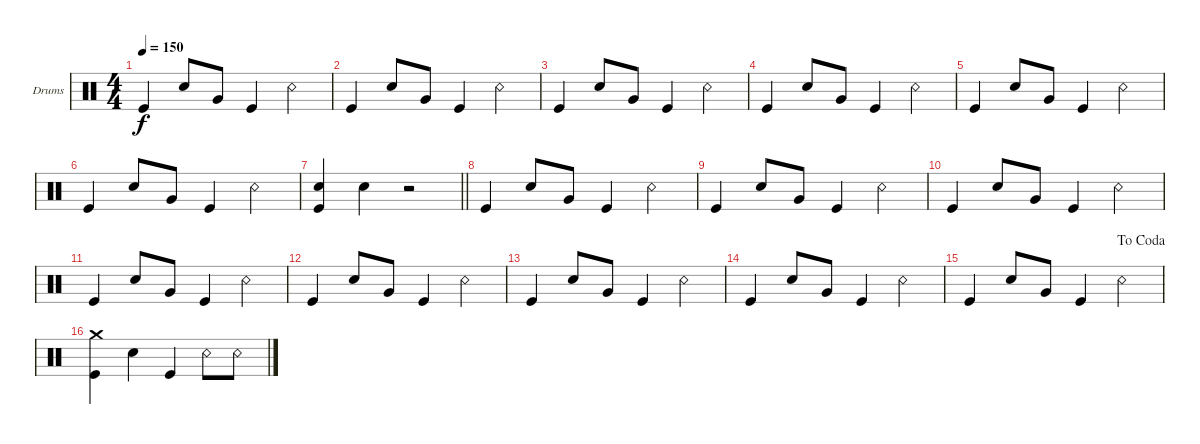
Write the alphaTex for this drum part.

\bracketExtendMode groupsimilarinstruments
\firstSystemTrackNameOrientation horizontal
\otherSystemsTrackNameOrientation horizontal
\track ("Drumkit" "Drums") {instrument percussion}
\staff {score}
\articulation defaults
\ts (4 4)
\tempo 150
\clef neutral
\scale
0.333333
\ks c "Kick (hit)".4{dy f} "Snare (hit) 2".8 "Very Low Tom (hit)".8 "Kick (hit)".4 "Snare (rim shot)".4
|
\scale
0.333333 "Kick (hit)".4 "Snare (hit) 2".8 "Very Low Tom (hit)".8 "Kick (hit)".4 "Snare (rim shot)".4 |
\scale
0.333333 "Kick (hit)".4 "Snare (hit) 2".8 "Very Low Tom (hit)".8 "Kick (hit)".4 "Snare (rim shot)".4 |
\scale
0.333333 "Kick (hit)".4 "Snare (hit) 2".8 "Very Low Tom (hit)".8 "Kick (hit)".4 "Snare (rim shot)".4 |
\scale
0.333333 "Kick (hit)".4 "Snare (hit) 2".8 "Very Low Tom (hit)".8 "Kick (hit)".4 "Snare (rim shot)".4 |
\scale
0.333333 "Kick (hit)".4 "Snare (hit) 2".8 "Very Low Tom (hit)".8 "Kick (hit)".4 "Snare (rim shot)".4 |
\scale
0.333333
\barLineRight lightlight
("Kick (hit)" "Snare (hit) 2").4 "Snare (hit) 2".4 r.2 |
\scale
0.333333 "Kick (hit)".4 "Snare (hit) 2".8 "Very Low Tom (hit)".8 "Kick (hit)".4 "Snare (rim shot)".4 |
\scale
0.333333 "Kick (hit)".4 "Snare (hit) 2".8 "Very Low Tom (hit)".8 "Kick (hit)".4 "Snare (rim shot)".4 |
\scale
0.333333 "Kick (hit)".4 "Snare (hit) 2".8 "Very Low Tom (hit)".8 "Kick (hit)".4 "Snare (rim shot)".4 |
\scale
0.333333 "Kick (hit)".4 "Snare (hit) 2".8 "Very Low Tom (hit)".8 "Kick (hit)".4 "Snare (rim shot)".4 |
\scale
0.333333 "Kick (hit)".4 "Snare (hit) 2".8 "Very Low Tom (hit)".8 "Kick (hit)".4 "Snare (rim shot)".4 |
\scale
0.333333 "Kick (hit)".4 "Snare (hit) 2".8 "Very Low Tom (hit)".8 "Kick (hit)".4 "Snare (rim shot)".4 |
\scale
0.333333 "Kick (hit)".4 "Snare (hit) 2".8 "Very Low Tom (hit)".8 "Kick (hit)".4 "Snare (rim shot)".4 |
\jump dacoda
\scale
0.333333 "Kick (hit)".4 "Snare (hit) 2".8 "Very Low Tom (hit)".8 "Kick (hit)".4 "Snare (rim shot)".4 |
\scale
0.333333 ("Kick (hit)" "Crash medium (hit)").4 "Snare (hit) 2".4 "Kick (hit)".4 "Snare (rim shot)".8 "Snare (rim shot)".8
